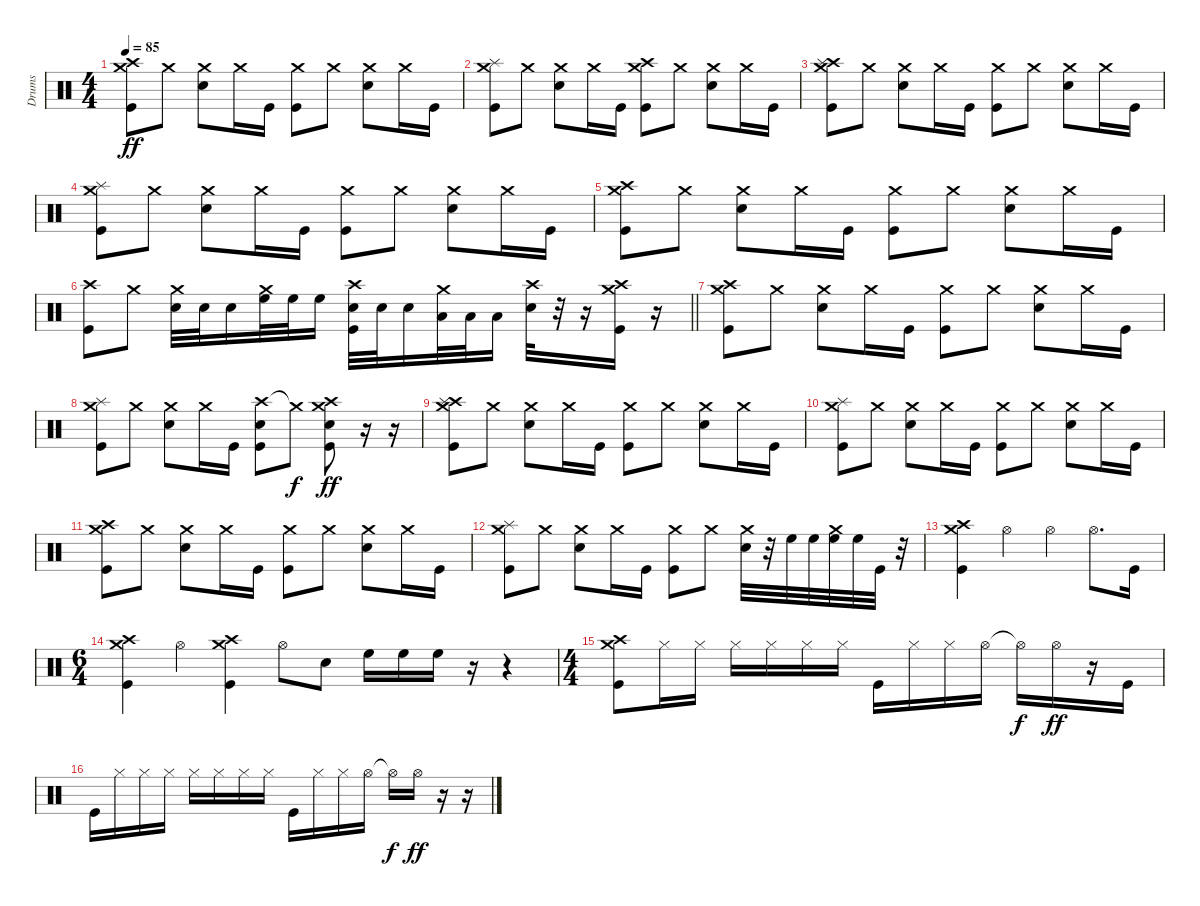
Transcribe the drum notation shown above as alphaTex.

\track ("Drums" "Drums") {instrument percussion}
\staff {score}
\articulation defaults
\ts (4 4)
\tempo 85
\clef neutral
\ks c
("Crash high (hit)" "Crash medium (hit)" "Kick (hit)").8{dy ff} "Crash medium (hit)".8 ("Crash medium (hit)" "Snare (hit) 2").8 "Crash medium (hit)".16 "Kick (hit)".16 ("Crash medium (hit)" "Kick (hit)").8 "Crash medium (hit)".8 ("Crash medium (hit)" "Snare (hit) 2").8 "Crash medium (hit)".16 "Kick (hit)".16 |
("Splash (hit)" "Crash medium (hit)" "Kick (hit)").8 "Crash medium (hit)".8 ("Crash medium (hit)" "Snare (hit) 2").8 "Crash medium (hit)".16 "Kick (hit)".16 ("Crash high (hit)" "Crash medium (hit)" "Kick (hit)").8 "Crash medium (hit)".8 ("Crash medium (hit)" "Snare (hit) 2").8 "Crash medium (hit)".16 "Kick (hit)".16 |
("Crash high (hit)" "Splash (hit)" "Crash medium (hit)" "Kick (hit)").8 "Crash medium (hit)".8 ("Crash medium (hit)" "Snare (hit) 2").8 "Crash medium (hit)".16 "Kick (hit)".16 ("Crash medium (hit)" "Kick (hit)").8 "Crash medium (hit)".8 ("Crash medium (hit)" "Snare (hit) 2").8 "Crash medium (hit)".16 "Kick (hit)".16 |
("Splash (hit)" "Crash medium (hit)" "Kick (hit)").8 "Crash medium (hit)".8 ("Crash medium (hit)" "Snare (hit) 2").8 "Crash medium (hit)".16 "Kick (hit)".16 ("Crash medium (hit)" "Kick (hit)").8 "Crash medium (hit)".8 ("Crash medium (hit)" "Snare (hit) 2").8 "Crash medium (hit)".16 "Kick (hit)".16 |
("Crash high (hit)" "Crash medium (hit)" "Kick (hit)").8 "Crash medium (hit)".8 ("Crash medium (hit)" "Snare (hit) 2").8 "Crash medium (hit)".16 "Kick (hit)".16 ("Crash medium (hit)" "Kick (hit)").8 "Crash medium (hit)".8 ("Crash medium (hit)" "Snare (hit) 2").8 "Crash medium (hit)".16 "Kick (hit)".16 |
\barLineRight lightlight
("Crash high (hit)" "Kick (hit)").8 "Crash medium (hit)".8 ("Crash medium (hit)" "Snare (hit) 2").32 "Snare (hit) 2".32 "Snare (hit) 2".16 ("Crash medium (hit)" "High Floor Tom (hit)").32 "High Floor Tom (hit)".32 "High Floor Tom (hit)".16 ("Crash high (hit)" "Snare (hit) 2" "Kick (hit)").32 "Snare (hit) 2".32 "Snare (hit) 2".16 ("Crash medium (hit)" "Low Tom (hit)").32 "Low Tom (hit)".32 "Low Tom (hit)".16 ("Crash high (hit)" "Snare (hit) 2").32 r.32 r.16 ("Crash high (hit)" "Crash medium (hit)" "Kick (hit)").16 r.16 |
("Crash high (hit)" "Crash medium (hit)" "Kick (hit)").8 "Crash medium (hit)".8 ("Crash medium (hit)" "Snare (hit) 2").8 "Crash medium (hit)".16 "Kick (hit)".16 ("Crash medium (hit)" "Kick (hit)").8 "Crash medium (hit)".8 ("Crash medium (hit)" "Snare (hit) 2").8 "Crash medium (hit)".16 "Kick (hit)".16 |
("Splash (hit)" "Crash medium (hit)" "Kick (hit)").8 "Crash medium (hit)".8 ("Crash medium (hit)" "Snare (hit) 2").8 "Crash medium (hit)".16 "Kick (hit)".16 ("Crash high (hit)" "Snare (hit) 2" "Kick (hit)").8 "Crash medium (hit)"{t}.8{dy f} ("Crash high (hit)" "Crash medium (hit)" "Snare (hit) 2" "Kick (hit)").8{dy ff} r.16 r.16 |
("Crash high (hit)" "Splash (hit)" "Crash medium (hit)" "Kick (hit)").8 "Crash medium (hit)".8 ("Crash medium (hit)" "Snare (hit) 2").8 "Crash medium (hit)".16 "Kick (hit)".16 ("Crash medium (hit)" "Kick (hit)").8 "Crash medium (hit)".8 ("Crash medium (hit)" "Snare (hit) 2").8 "Crash medium (hit)".16 "Kick (hit)".16 |
("Splash (hit)" "Crash medium (hit)" "Kick (hit)").8 "Crash medium (hit)".8 ("Crash medium (hit)" "Snare (hit) 2").8 "Crash medium (hit)".16 "Kick (hit)".16 ("Crash medium (hit)" "Kick (hit)").8 "Crash medium (hit)".8 ("Crash medium (hit)" "Snare (hit) 2").8 "Crash medium (hit)".16 "Kick (hit)".16 |
("Crash high (hit)" "Crash medium (hit)" "Kick (hit)").8 "Crash medium (hit)".8 ("Crash medium (hit)" "Snare (hit) 2").8 "Crash medium (hit)".16 "Kick (hit)".16 ("Crash medium (hit)" "Kick (hit)").8 "Crash medium (hit)".8 ("Crash medium (hit)" "Snare (hit) 2").8 "Crash medium (hit)".16 "Kick (hit)".16 |
("Splash (hit)" "Crash medium (hit)" "Kick (hit)").8 "Crash medium (hit)".8 ("Crash medium (hit)" "Snare (hit) 2").8 "Crash medium (hit)".16 "Kick (hit)".16 ("Crash medium (hit)" "Kick (hit)").8 "Crash medium (hit)".8 ("Crash medium (hit)" "Snare (hit) 2").32 r.32 "High Floor Tom (hit)".32 "High Floor Tom (hit)".32 ("Crash medium (hit)" "High Floor Tom (hit)").32 "High Floor Tom (hit)".32 "Kick (hit)".32 r.32 |
("Crash high (hit)" "Crash medium (hit)" "Kick (hit)").4 "Hi-Hat (open)".4 "Hi-Hat (open)".4 "Hi-Hat (open)".8{d} "Kick (hit)".16 |
\ts (6 4)
("Crash high (hit)" "Crash medium (hit)" "Kick (hit)").4 "Hi-Hat (open)".4 ("Crash high (hit)" "Crash medium (hit)" "Kick (hit)").4 "Hi-Hat (open)".8 "Snare (hit) 2".8 "High Floor Tom (hit)".16 "High Floor Tom (hit)".16 "High Floor Tom (hit)".16 r.16 r.4 |
\ts (4 4)
("Crash high (hit)" "Crash medium (hit)" "Kick (hit)").8 "Hi-Hat (closed)".16 "Hi-Hat (closed)".16 "Hi-Hat (closed)".16 "Hi-Hat (closed)".16 "Hi-Hat (closed)".16 "Hi-Hat (closed)".16 "Kick (hit)".16 "Hi-Hat (closed)".16 "Hi-Hat (closed)".16 "Hi-Hat (open)".16 "Hi-Hat (open)"{t}.16{dy f} "Hi-Hat (open)".16{dy ff} r.16 "Kick (hit)".16 |
"Kick (hit)".16 "Hi-Hat (closed)".16 "Hi-Hat (closed)".16 "Hi-Hat (closed)".16 "Hi-Hat (closed)".16 "Hi-Hat (closed)".16 "Hi-Hat (closed)".16 "Hi-Hat (closed)".16 "Kick (hit)".16 "Hi-Hat (closed)".16 "Hi-Hat (closed)".16 "Hi-Hat (open)".16 "Hi-Hat (open)"{t}.16{dy f} "Hi-Hat (open)".16{dy ff} r.16 r.16
